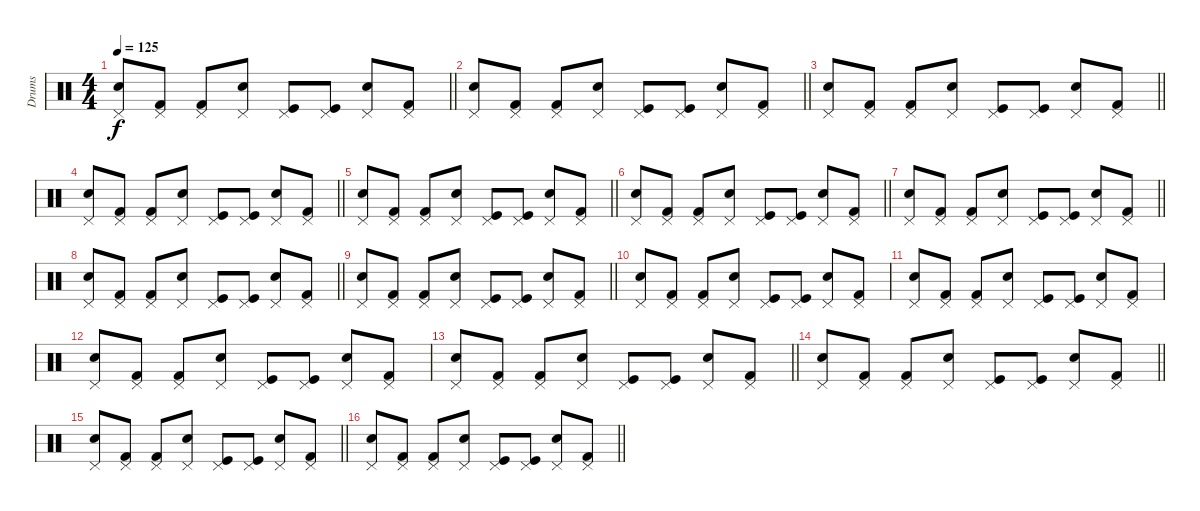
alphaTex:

\track ("Drums" "Drums") {instrument percussion}
\staff {score}
\articulation defaults
\ts (4 4)
\tempo 125
\clef neutral
\barLineRight lightlight
\ks c
("Electric Snare (hit)" "Pedal Hi-Hat (hit)").8{dy f} ("Kick (hit) 2" "Pedal Hi-Hat (hit)").8 ("Kick (hit) 2" "Pedal Hi-Hat (hit)").8 ("Electric Snare (hit)" "Pedal Hi-Hat (hit)").8 ("Kick (hit)" "Pedal Hi-Hat (hit)").8 ("Kick (hit)" "Pedal Hi-Hat (hit)").8 ("Electric Snare (hit)" "Pedal Hi-Hat (hit)").8 ("Kick (hit) 2" "Pedal Hi-Hat (hit)").8 |
\barLineRight lightlight
("Electric Snare (hit)" "Pedal Hi-Hat (hit)").8 ("Kick (hit) 2" "Pedal Hi-Hat (hit)").8 ("Kick (hit) 2" "Pedal Hi-Hat (hit)").8 ("Electric Snare (hit)" "Pedal Hi-Hat (hit)").8 ("Kick (hit)" "Pedal Hi-Hat (hit)").8 ("Kick (hit)" "Pedal Hi-Hat (hit)").8 ("Electric Snare (hit)" "Pedal Hi-Hat (hit)").8 ("Kick (hit) 2" "Pedal Hi-Hat (hit)").8 |
\barLineRight lightlight
("Electric Snare (hit)" "Pedal Hi-Hat (hit)").8 ("Kick (hit) 2" "Pedal Hi-Hat (hit)").8 ("Kick (hit) 2" "Pedal Hi-Hat (hit)").8 ("Electric Snare (hit)" "Pedal Hi-Hat (hit)").8 ("Kick (hit)" "Pedal Hi-Hat (hit)").8 ("Kick (hit)" "Pedal Hi-Hat (hit)").8 ("Electric Snare (hit)" "Pedal Hi-Hat (hit)").8 ("Kick (hit) 2" "Pedal Hi-Hat (hit)").8 |
\barLineRight lightlight
("Electric Snare (hit)" "Pedal Hi-Hat (hit)").8 ("Kick (hit) 2" "Pedal Hi-Hat (hit)").8 ("Kick (hit) 2" "Pedal Hi-Hat (hit)").8 ("Electric Snare (hit)" "Pedal Hi-Hat (hit)").8 ("Kick (hit)" "Pedal Hi-Hat (hit)").8 ("Kick (hit)" "Pedal Hi-Hat (hit)").8 ("Electric Snare (hit)" "Pedal Hi-Hat (hit)").8 ("Kick (hit) 2" "Pedal Hi-Hat (hit)").8 |
\barLineRight lightlight
("Electric Snare (hit)" "Pedal Hi-Hat (hit)").8 ("Kick (hit) 2" "Pedal Hi-Hat (hit)").8 ("Kick (hit) 2" "Pedal Hi-Hat (hit)").8 ("Electric Snare (hit)" "Pedal Hi-Hat (hit)").8 ("Kick (hit)" "Pedal Hi-Hat (hit)").8 ("Kick (hit)" "Pedal Hi-Hat (hit)").8 ("Electric Snare (hit)" "Pedal Hi-Hat (hit)").8 ("Kick (hit) 2" "Pedal Hi-Hat (hit)").8 |
\section ("" "")
\barLineRight lightlight
("Electric Snare (hit)" "Pedal Hi-Hat (hit)").8 ("Kick (hit) 2" "Pedal Hi-Hat (hit)").8 ("Kick (hit) 2" "Pedal Hi-Hat (hit)").8 ("Electric Snare (hit)" "Pedal Hi-Hat (hit)").8 ("Kick (hit)" "Pedal Hi-Hat (hit)").8 ("Kick (hit)" "Pedal Hi-Hat (hit)").8 ("Electric Snare (hit)" "Pedal Hi-Hat (hit)").8 ("Kick (hit) 2" "Pedal Hi-Hat (hit)").8 |
\barLineRight lightlight
("Electric Snare (hit)" "Pedal Hi-Hat (hit)").8 ("Kick (hit) 2" "Pedal Hi-Hat (hit)").8 ("Kick (hit) 2" "Pedal Hi-Hat (hit)").8 ("Electric Snare (hit)" "Pedal Hi-Hat (hit)").8 ("Kick (hit)" "Pedal Hi-Hat (hit)").8 ("Kick (hit)" "Pedal Hi-Hat (hit)").8 ("Electric Snare (hit)" "Pedal Hi-Hat (hit)").8 ("Kick (hit) 2" "Pedal Hi-Hat (hit)").8 |
\barLineRight lightlight
("Electric Snare (hit)" "Pedal Hi-Hat (hit)").8 ("Kick (hit) 2" "Pedal Hi-Hat (hit)").8 ("Kick (hit) 2" "Pedal Hi-Hat (hit)").8 ("Electric Snare (hit)" "Pedal Hi-Hat (hit)").8 ("Kick (hit)" "Pedal Hi-Hat (hit)").8 ("Kick (hit)" "Pedal Hi-Hat (hit)").8 ("Electric Snare (hit)" "Pedal Hi-Hat (hit)").8 ("Kick (hit) 2" "Pedal Hi-Hat (hit)").8 |
\barLineRight lightlight
("Electric Snare (hit)" "Pedal Hi-Hat (hit)").8 ("Kick (hit) 2" "Pedal Hi-Hat (hit)").8 ("Kick (hit) 2" "Pedal Hi-Hat (hit)").8 ("Electric Snare (hit)" "Pedal Hi-Hat (hit)").8 ("Kick (hit)" "Pedal Hi-Hat (hit)").8 ("Kick (hit)" "Pedal Hi-Hat (hit)").8 ("Electric Snare (hit)" "Pedal Hi-Hat (hit)").8 ("Kick (hit) 2" "Pedal Hi-Hat (hit)").8 |
\section ("" "")
("Electric Snare (hit)" "Pedal Hi-Hat (hit)").8 ("Kick (hit) 2" "Pedal Hi-Hat (hit)").8 ("Kick (hit) 2" "Pedal Hi-Hat (hit)").8 ("Electric Snare (hit)" "Pedal Hi-Hat (hit)").8 ("Kick (hit)" "Pedal Hi-Hat (hit)").8 ("Kick (hit)" "Pedal Hi-Hat (hit)").8 ("Electric Snare (hit)" "Pedal Hi-Hat (hit)").8 ("Kick (hit) 2" "Pedal Hi-Hat (hit)").8 |
("Electric Snare (hit)" "Pedal Hi-Hat (hit)").8 ("Kick (hit) 2" "Pedal Hi-Hat (hit)").8 ("Kick (hit) 2" "Pedal Hi-Hat (hit)").8 ("Electric Snare (hit)" "Pedal Hi-Hat (hit)").8 ("Kick (hit)" "Pedal Hi-Hat (hit)").8 ("Kick (hit)" "Pedal Hi-Hat (hit)").8 ("Electric Snare (hit)" "Pedal Hi-Hat (hit)").8 ("Kick (hit) 2" "Pedal Hi-Hat (hit)").8 |
("Electric Snare (hit)" "Pedal Hi-Hat (hit)").8 ("Kick (hit) 2" "Pedal Hi-Hat (hit)").8 ("Kick (hit) 2" "Pedal Hi-Hat (hit)").8 ("Electric Snare (hit)" "Pedal Hi-Hat (hit)").8 ("Kick (hit)" "Pedal Hi-Hat (hit)").8 ("Kick (hit)" "Pedal Hi-Hat (hit)").8 ("Electric Snare (hit)" "Pedal Hi-Hat (hit)").8 ("Kick (hit) 2" "Pedal Hi-Hat (hit)").8 |
\barLineRight lightlight
("Electric Snare (hit)" "Pedal Hi-Hat (hit)").8 ("Kick (hit) 2" "Pedal Hi-Hat (hit)").8 ("Kick (hit) 2" "Pedal Hi-Hat (hit)").8 ("Electric Snare (hit)" "Pedal Hi-Hat (hit)").8 ("Kick (hit)" "Pedal Hi-Hat (hit)").8 ("Kick (hit)" "Pedal Hi-Hat (hit)").8 ("Electric Snare (hit)" "Pedal Hi-Hat (hit)").8 ("Kick (hit) 2" "Pedal Hi-Hat (hit)").8 |
\barLineRight lightlight
("Electric Snare (hit)" "Pedal Hi-Hat (hit)").8 ("Kick (hit) 2" "Pedal Hi-Hat (hit)").8 ("Kick (hit) 2" "Pedal Hi-Hat (hit)").8 ("Electric Snare (hit)" "Pedal Hi-Hat (hit)").8 ("Kick (hit)" "Pedal Hi-Hat (hit)").8 ("Kick (hit)" "Pedal Hi-Hat (hit)").8 ("Electric Snare (hit)" "Pedal Hi-Hat (hit)").8 ("Kick (hit) 2" "Pedal Hi-Hat (hit)").8 |
\barLineRight lightlight
("Electric Snare (hit)" "Pedal Hi-Hat (hit)").8 ("Kick (hit) 2" "Pedal Hi-Hat (hit)").8 ("Kick (hit) 2" "Pedal Hi-Hat (hit)").8 ("Electric Snare (hit)" "Pedal Hi-Hat (hit)").8 ("Kick (hit)" "Pedal Hi-Hat (hit)").8 ("Kick (hit)" "Pedal Hi-Hat (hit)").8 ("Electric Snare (hit)" "Pedal Hi-Hat (hit)").8 ("Kick (hit) 2" "Pedal Hi-Hat (hit)").8 |
\barLineRight lightlight
("Electric Snare (hit)" "Pedal Hi-Hat (hit)").8 ("Kick (hit) 2" "Pedal Hi-Hat (hit)").8 ("Kick (hit) 2" "Pedal Hi-Hat (hit)").8 ("Electric Snare (hit)" "Pedal Hi-Hat (hit)").8 ("Kick (hit)" "Pedal Hi-Hat (hit)").8 ("Kick (hit)" "Pedal Hi-Hat (hit)").8 ("Electric Snare (hit)" "Pedal Hi-Hat (hit)").8 ("Kick (hit) 2" "Pedal Hi-Hat (hit)").8
